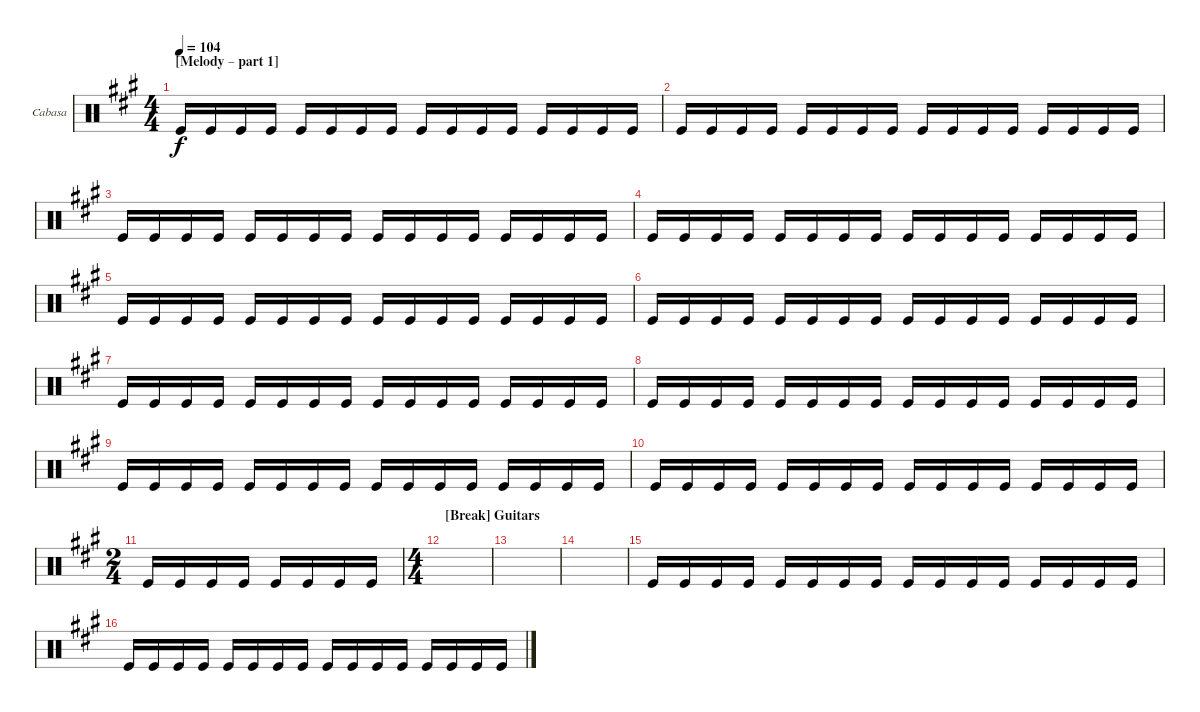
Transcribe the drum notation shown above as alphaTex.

\bracketExtendMode groupsimilarinstruments
\firstSystemTrackNameOrientation horizontal
\otherSystemsTrackNameOrientation horizontal
\track ("Cabasa" "Cabasa") {instrument percussion}
\staff {score}
\articulation defaults
\ts (4 4)
\section ("" "[Melody – part 1] ")
\tempo 104
\clef neutral
\ks a "Kick (hit)".16{dy f} "Kick (hit)".16 "Kick (hit)".16 "Kick (hit)".16 "Kick (hit)".16 "Kick (hit)".16 "Kick (hit)".16 "Kick (hit)".16 "Kick (hit)".16 "Kick (hit)".16 "Kick (hit)".16 "Kick (hit)".16 "Kick (hit)".16 "Kick (hit)".16 "Kick (hit)".16 "Kick (hit)".16
|
"Kick (hit)".16 "Kick (hit)".16 "Kick (hit)".16 "Kick (hit)".16 "Kick (hit)".16 "Kick (hit)".16 "Kick (hit)".16 "Kick (hit)".16 "Kick (hit)".16 "Kick (hit)".16 "Kick (hit)".16 "Kick (hit)".16 "Kick (hit)".16 "Kick (hit)".16 "Kick (hit)".16 "Kick (hit)".16 |
"Kick (hit)".16 "Kick (hit)".16 "Kick (hit)".16 "Kick (hit)".16 "Kick (hit)".16 "Kick (hit)".16 "Kick (hit)".16 "Kick (hit)".16 "Kick (hit)".16 "Kick (hit)".16 "Kick (hit)".16 "Kick (hit)".16 "Kick (hit)".16 "Kick (hit)".16 "Kick (hit)".16 "Kick (hit)".16 |
"Kick (hit)".16 "Kick (hit)".16 "Kick (hit)".16 "Kick (hit)".16 "Kick (hit)".16 "Kick (hit)".16 "Kick (hit)".16 "Kick (hit)".16 "Kick (hit)".16 "Kick (hit)".16 "Kick (hit)".16 "Kick (hit)".16 "Kick (hit)".16 "Kick (hit)".16 "Kick (hit)".16 "Kick (hit)".16 |
"Kick (hit)".16 "Kick (hit)".16 "Kick (hit)".16 "Kick (hit)".16 "Kick (hit)".16 "Kick (hit)".16 "Kick (hit)".16 "Kick (hit)".16 "Kick (hit)".16 "Kick (hit)".16 "Kick (hit)".16 "Kick (hit)".16 "Kick (hit)".16 "Kick (hit)".16 "Kick (hit)".16 "Kick (hit)".16 |
"Kick (hit)".16 "Kick (hit)".16 "Kick (hit)".16 "Kick (hit)".16 "Kick (hit)".16 "Kick (hit)".16 "Kick (hit)".16 "Kick (hit)".16 "Kick (hit)".16 "Kick (hit)".16 "Kick (hit)".16 "Kick (hit)".16 "Kick (hit)".16 "Kick (hit)".16 "Kick (hit)".16 "Kick (hit)".16 |
"Kick (hit)".16 "Kick (hit)".16 "Kick (hit)".16 "Kick (hit)".16 "Kick (hit)".16 "Kick (hit)".16 "Kick (hit)".16 "Kick (hit)".16 "Kick (hit)".16 "Kick (hit)".16 "Kick (hit)".16 "Kick (hit)".16 "Kick (hit)".16 "Kick (hit)".16 "Kick (hit)".16 "Kick (hit)".16 |
"Kick (hit)".16 "Kick (hit)".16 "Kick (hit)".16 "Kick (hit)".16 "Kick (hit)".16 "Kick (hit)".16 "Kick (hit)".16 "Kick (hit)".16 "Kick (hit)".16 "Kick (hit)".16 "Kick (hit)".16 "Kick (hit)".16 "Kick (hit)".16 "Kick (hit)".16 "Kick (hit)".16 "Kick (hit)".16 |
"Kick (hit)".16 "Kick (hit)".16 "Kick (hit)".16 "Kick (hit)".16 "Kick (hit)".16 "Kick (hit)".16 "Kick (hit)".16 "Kick (hit)".16 "Kick (hit)".16 "Kick (hit)".16 "Kick (hit)".16 "Kick (hit)".16 "Kick (hit)".16 "Kick (hit)".16 "Kick (hit)".16 "Kick (hit)".16 |
"Kick (hit)".16 "Kick (hit)".16 "Kick (hit)".16 "Kick (hit)".16 "Kick (hit)".16 "Kick (hit)".16 "Kick (hit)".16 "Kick (hit)".16 "Kick (hit)".16 "Kick (hit)".16 "Kick (hit)".16 "Kick (hit)".16 "Kick (hit)".16 "Kick (hit)".16 "Kick (hit)".16 "Kick (hit)".16 |
\ts (2 4)
"Kick (hit)".16 "Kick (hit)".16 "Kick (hit)".16 "Kick (hit)".16 "Kick (hit)".16 "Kick (hit)".16 "Kick (hit)".16 "Kick (hit)".16 |
\ts (4 4)
\section ("" "[Break] Guitars")
|
|
|
"Kick (hit)".16 "Kick (hit)".16 "Kick (hit)".16 "Kick (hit)".16 "Kick (hit)".16 "Kick (hit)".16 "Kick (hit)".16 "Kick (hit)".16 "Kick (hit)".16 "Kick (hit)".16 "Kick (hit)".16 "Kick (hit)".16 "Kick (hit)".16 "Kick (hit)".16 "Kick (hit)".16 "Kick (hit)".16 |
"Kick (hit)".16 "Kick (hit)".16 "Kick (hit)".16 "Kick (hit)".16 "Kick (hit)".16 "Kick (hit)".16 "Kick (hit)".16 "Kick (hit)".16 "Kick (hit)".16 "Kick (hit)".16 "Kick (hit)".16 "Kick (hit)".16 "Kick (hit)".16 "Kick (hit)".16 "Kick (hit)".16 "Kick (hit)".16
